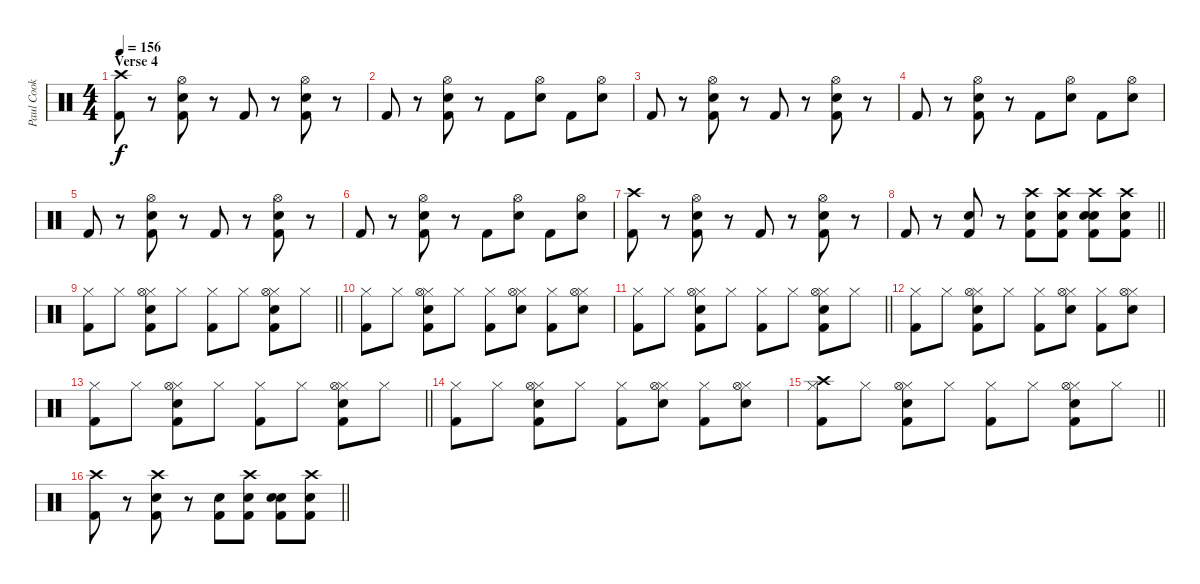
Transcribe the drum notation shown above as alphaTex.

\track ("Paul Cook" "Paul Cook") {instrument percussion}
\staff {score}
\articulation defaults
\ts (4 4)
\section ("" "Verse 4")
\tempo 156
\clef neutral
\ks c
("Crash high (hit)" "Kick (hit) 2").8{dy f} r.8 ("Snare (hit) 2" "Kick (hit) 2" "Hi-Hat (open)").8 r.8 "Kick (hit) 2".8 r.8 ("Snare (hit) 2" "Kick (hit) 2" "Hi-Hat (open)").8 r.8 |
"Kick (hit) 2".8 r.8 ("Snare (hit) 2" "Kick (hit) 2" "Hi-Hat (open)").8 r.8 "Kick (hit) 2".8 ("Snare (hit) 2" "Hi-Hat (open)").8 "Kick (hit) 2".8 ("Snare (hit) 2" "Hi-Hat (open)").8 |
"Kick (hit) 2".8 r.8 ("Snare (hit) 2" "Kick (hit) 2" "Hi-Hat (open)").8 r.8 "Kick (hit) 2".8 r.8 ("Snare (hit) 2" "Kick (hit) 2" "Hi-Hat (open)").8 r.8 |
"Kick (hit) 2".8 r.8 ("Snare (hit) 2" "Kick (hit) 2" "Hi-Hat (open)").8 r.8 "Kick (hit) 2".8 ("Snare (hit) 2" "Hi-Hat (open)").8 "Kick (hit) 2".8 ("Snare (hit) 2" "Hi-Hat (open)").8 |
"Kick (hit) 2".8 r.8 ("Snare (hit) 2" "Kick (hit) 2" "Hi-Hat (open)").8 r.8 "Kick (hit) 2".8 r.8 ("Snare (hit) 2" "Kick (hit) 2" "Hi-Hat (open)").8 r.8 |
"Kick (hit) 2".8 r.8 ("Snare (hit) 2" "Kick (hit) 2" "Hi-Hat (open)").8 r.8 "Kick (hit) 2".8 ("Snare (hit) 2" "Hi-Hat (open)").8 "Kick (hit) 2".8 ("Snare (hit) 2" "Hi-Hat (open)").8 |
("Crash high (hit)" "Kick (hit) 2").8 r.8 ("Snare (hit) 2" "Kick (hit) 2" "Hi-Hat (open)").8 r.8 "Kick (hit) 2".8 r.8 ("Snare (hit) 2" "Kick (hit) 2" "Hi-Hat (open)").8 r.8 |
\barLineRight lightlight "Kick (hit) 2".8
r.8 ("Kick (hit) 2" "Snare (hit) 2").8 r.8 ("Kick (hit) 2" "Crash high (hit)" "Snare (hit) 2").8 ("Kick (hit) 2" "Crash high (hit)" "Snare (hit) 2").8 ("Kick (hit) 2" "Snare (hit) 2" "Crash high (hit)" "Snare (hit) 2").8 ("Kick (hit) 2" "Crash high (hit)" "Snare (hit) 2").8 |
\barLineRight lightlight
("Hi-Hat (closed)" "Kick (hit) 2").8 "Hi-Hat (closed)".8 ("Hi-Hat (closed)" "Snare (hit) 2" "Kick (hit) 2" "Hi-Hat (open)").8 "Hi-Hat (closed)".8 ("Hi-Hat (closed)" "Kick (hit) 2").8 "Hi-Hat (closed)".8 ("Hi-Hat (closed)" "Snare (hit) 2" "Kick (hit) 2" "Hi-Hat (open)").8 "Hi-Hat (closed)".8 |
\section ("" "")
("Hi-Hat (closed)" "Kick (hit) 2").8 "Hi-Hat (closed)".8 ("Hi-Hat (closed)" "Snare (hit) 2" "Kick (hit) 2" "Hi-Hat (open)").8 "Hi-Hat (closed)".8 ("Hi-Hat (closed)" "Kick (hit) 2").8 ("Hi-Hat (closed)" "Snare (hit) 2" "Hi-Hat (open)").8 ("Hi-Hat (closed)" "Kick (hit) 2").8 ("Hi-Hat (closed)" "Snare (hit) 2" "Hi-Hat (open)").8 |
\barLineRight lightlight
("Hi-Hat (closed)" "Kick (hit) 2").8 "Hi-Hat (closed)".8 ("Hi-Hat (closed)" "Snare (hit) 2" "Kick (hit) 2" "Hi-Hat (open)").8 "Hi-Hat (closed)".8 ("Hi-Hat (closed)" "Kick (hit) 2").8 "Hi-Hat (closed)".8 ("Hi-Hat (closed)" "Snare (hit) 2" "Kick (hit) 2" "Hi-Hat (open)").8 "Hi-Hat (closed)".8 |
("Hi-Hat (closed)" "Kick (hit) 2").8 "Hi-Hat (closed)".8 ("Hi-Hat (closed)" "Snare (hit) 2" "Kick (hit) 2" "Hi-Hat (open)").8 "Hi-Hat (closed)".8 ("Hi-Hat (closed)" "Kick (hit) 2").8 ("Hi-Hat (closed)" "Snare (hit) 2" "Hi-Hat (open)").8 ("Hi-Hat (closed)" "Kick (hit) 2").8 ("Hi-Hat (closed)" "Snare (hit) 2" "Hi-Hat (open)").8 |
\barLineRight lightlight
("Hi-Hat (closed)" "Kick (hit) 2").8 "Hi-Hat (closed)".8 ("Hi-Hat (closed)" "Snare (hit) 2" "Kick (hit) 2" "Hi-Hat (open)").8 "Hi-Hat (closed)".8 ("Hi-Hat (closed)" "Kick (hit) 2").8 "Hi-Hat (closed)".8 ("Hi-Hat (closed)" "Snare (hit) 2" "Kick (hit) 2" "Hi-Hat (open)").8 "Hi-Hat (closed)".8 |
("Hi-Hat (closed)" "Kick (hit) 2").8 "Hi-Hat (closed)".8 ("Hi-Hat (closed)" "Snare (hit) 2" "Kick (hit) 2" "Hi-Hat (open)").8 "Hi-Hat (closed)".8 ("Hi-Hat (closed)" "Kick (hit) 2").8 ("Hi-Hat (closed)" "Snare (hit) 2" "Hi-Hat (open)").8 ("Hi-Hat (closed)" "Kick (hit) 2").8 ("Hi-Hat (closed)" "Snare (hit) 2" "Hi-Hat (open)").8 |
\barLineRight lightlight
("Hi-Hat (closed)" "Crash high (hit)" "Kick (hit) 2").8 "Hi-Hat (closed)".8 ("Hi-Hat (closed)" "Snare (hit) 2" "Kick (hit) 2" "Hi-Hat (open)").8 "Hi-Hat (closed)".8 ("Hi-Hat (closed)" "Kick (hit) 2").8 "Hi-Hat (closed)".8 ("Hi-Hat (closed)" "Snare (hit) 2" "Kick (hit) 2" "Hi-Hat (open)").8 "Hi-Hat (closed)".8 |
\barLineRight lightlight
("Kick (hit) 2" "Crash high (hit)").8 r.8 ("Kick (hit) 2" "Snare (hit) 2" "Crash high (hit)").8 r.8 ("Kick (hit) 2" "Snare (hit) 2").8 ("Kick (hit) 2" "Crash high (hit)" "Snare (hit) 2").8 ("Kick (hit) 2" "Snare (hit) 2" "Snare (hit) 2").8 ("Kick (hit) 2" "Crash high (hit)" "Snare (hit) 2").8
